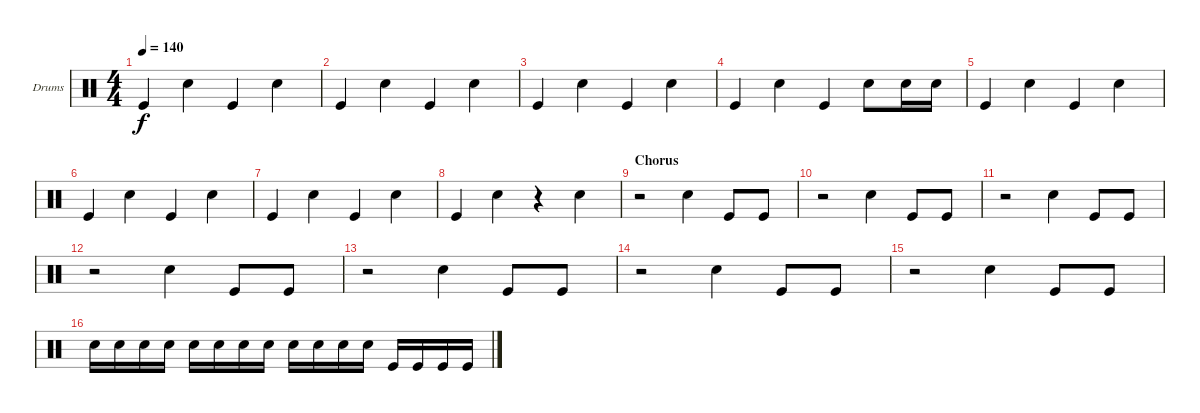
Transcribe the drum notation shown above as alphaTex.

\bracketExtendMode groupsimilarinstruments
\firstSystemTrackNameOrientation horizontal
\otherSystemsTrackNameOrientation horizontal
\track ("Drumkit" "Drums") {instrument percussion}
\staff {score}
\articulation defaults
\ts (4 4)
\tempo 140
\clef neutral
\ks c "Kick (hit)".4{dy f} "Snare (hit) 2".4 "Kick (hit)".4 "Snare (hit) 2".4
|
"Kick (hit)".4 "Snare (hit) 2".4 "Kick (hit)".4 "Snare (hit) 2".4 |
"Kick (hit)".4 "Snare (hit) 2".4 "Kick (hit)".4 "Snare (hit) 2".4 |
"Kick (hit)".4 "Snare (hit) 2".4 "Kick (hit)".4 "Snare (hit) 2".8 "Snare (hit) 2".16 "Snare (hit) 2".16 |
"Kick (hit)".4 "Snare (hit) 2".4 "Kick (hit)".4 "Snare (hit) 2".4 |
"Kick (hit)".4 "Snare (hit) 2".4 "Kick (hit)".4 "Snare (hit) 2".4 |
"Kick (hit)".4 "Snare (hit) 2".4 "Kick (hit)".4 "Snare (hit) 2".4 |
"Kick (hit)".4 "Snare (hit) 2".4 r.4 "Snare (hit) 2".4 |
\section ("" "Chorus")
r.2 "Snare (hit) 2".4 "Kick (hit)".8 "Kick (hit)".8 |
r.2 "Snare (hit) 2".4 "Kick (hit)".8 "Kick (hit)".8 |
r.2 "Snare (hit) 2".4 "Kick (hit)".8 "Kick (hit)".8 |
r.2 "Snare (hit) 2".4 "Kick (hit)".8 "Kick (hit)".8 |
r.2 "Snare (hit) 2".4 "Kick (hit)".8 "Kick (hit)".8 |
r.2 "Snare (hit) 2".4 "Kick (hit)".8 "Kick (hit)".8 |
r.2 "Snare (hit) 2".4 "Kick (hit)".8 "Kick (hit)".8 |
"Snare (hit) 2".16 "Snare (hit) 2".16 "Snare (hit) 2".16 "Snare (hit) 2".16 "Snare (hit) 2".16 "Snare (hit) 2".16 "Snare (hit) 2".16 "Snare (hit) 2".16 "Snare (hit) 2".16 "Snare (hit) 2".16 "Snare (hit) 2".16 "Snare (hit) 2".16 "Kick (hit)".16 "Kick (hit)".16 "Kick (hit)".16 "Kick (hit)".16
